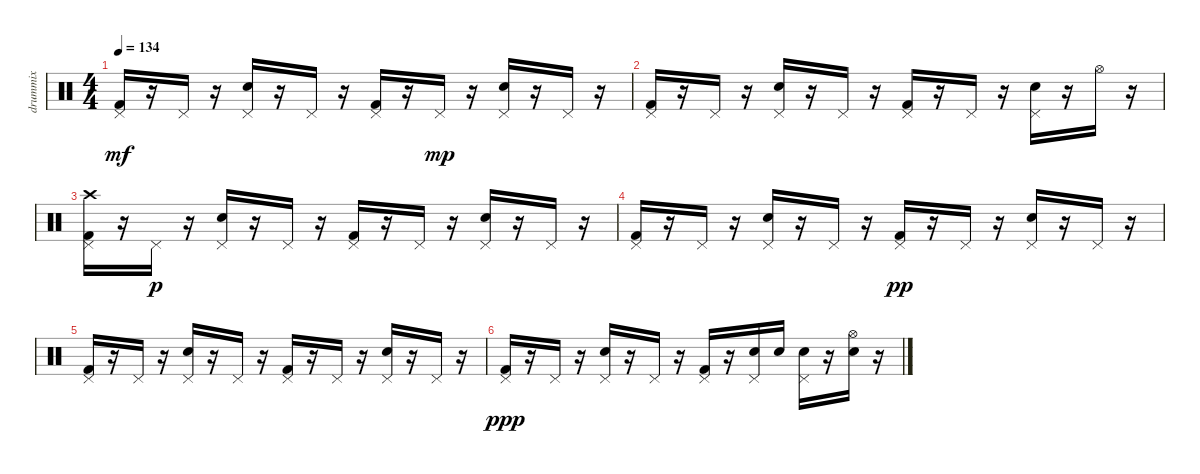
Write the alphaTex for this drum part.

\track ("drummix" "drummix") {instrument percussion}
\staff {score}
\articulation defaults
\ts (4 4)
\tempo 134
\clef neutral
\ks c
("Kick (hit) 2" "Pedal Hi-Hat (hit)").16{dy mf} r.16 "Pedal Hi-Hat (hit)".16 r.16 ("Snare (hit) 2" "Pedal Hi-Hat (hit)").16 r.16 "Pedal Hi-Hat (hit)".16 r.16 ("Kick (hit) 2" "Pedal Hi-Hat (hit)").16 r.16 "Pedal Hi-Hat (hit)".16{dy mp} r.16 ("Snare (hit) 2" "Pedal Hi-Hat (hit)").16 r.16 "Pedal Hi-Hat (hit)".16 r.16 |
("Kick (hit) 2" "Pedal Hi-Hat (hit)").16 r.16 "Pedal Hi-Hat (hit)".16 r.16 ("Snare (hit) 2" "Pedal Hi-Hat (hit)").16 r.16 "Pedal Hi-Hat (hit)".16 r.16 ("Kick (hit) 2" "Pedal Hi-Hat (hit)").16 r.16 "Pedal Hi-Hat (hit)".16 r.16 ("Snare (hit) 2" "Pedal Hi-Hat (hit)").16 r.16 "Hi-Hat (open)".16 r.16 |
("Kick (hit) 2" "Pedal Hi-Hat (hit)" "Crash high (hit)").16 r.16 "Pedal Hi-Hat (hit)".16{dy p} r.16 ("Snare (hit) 2" "Pedal Hi-Hat (hit)").16 r.16 "Pedal Hi-Hat (hit)".16 r.16 ("Kick (hit) 2" "Pedal Hi-Hat (hit)").16 r.16 "Pedal Hi-Hat (hit)".16 r.16 ("Snare (hit) 2" "Pedal Hi-Hat (hit)").16 r.16 "Pedal Hi-Hat (hit)".16 r.16 |
("Kick (hit) 2" "Pedal Hi-Hat (hit)").16 r.16 "Pedal Hi-Hat (hit)".16 r.16 ("Snare (hit) 2" "Pedal Hi-Hat (hit)").16 r.16 "Pedal Hi-Hat (hit)".16 r.16 ("Kick (hit) 2" "Pedal Hi-Hat (hit)").16{dy pp} r.16 "Pedal Hi-Hat (hit)".16 r.16 ("Snare (hit) 2" "Pedal Hi-Hat (hit)").16 r.16 "Pedal Hi-Hat (hit)".16 r.16 |
("Kick (hit) 2" "Pedal Hi-Hat (hit)").16 r.16 "Pedal Hi-Hat (hit)".16 r.16 ("Snare (hit) 2" "Pedal Hi-Hat (hit)").16 r.16 "Pedal Hi-Hat (hit)".16 r.16 ("Kick (hit) 2" "Pedal Hi-Hat (hit)").16 r.16 "Pedal Hi-Hat (hit)".16 r.16 ("Snare (hit) 2" "Pedal Hi-Hat (hit)").16 r.16 "Pedal Hi-Hat (hit)".16 r.16 |
("Kick (hit) 2" "Pedal Hi-Hat (hit)").16{dy ppp} r.16 "Pedal Hi-Hat (hit)".16 r.16 ("Snare (hit) 2" "Pedal Hi-Hat (hit)").16 r.16 "Pedal Hi-Hat (hit)".16 r.16 ("Kick (hit) 2" "Pedal Hi-Hat (hit)").16 r.16 ("Snare (hit) 2" "Pedal Hi-Hat (hit)").16 "Snare (hit) 2".16 ("Snare (hit) 2" "Pedal Hi-Hat (hit)").16 r.16 ("Snare (hit) 2" "Hi-Hat (open)").16 r.16
